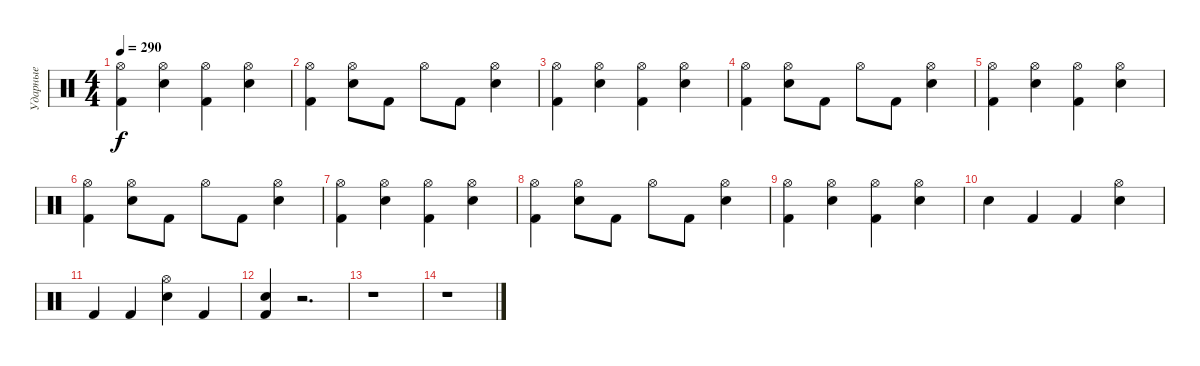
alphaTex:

\track ("Ударные" "Ударные") {instrument percussion}
\staff {score}
\articulation defaults
\ts (4 4)
\tempo 290
\clef neutral
\ks c
("Kick (hit) 2" "Hi-Hat (open)").4{dy f} ("Snare (hit) 2" "Hi-Hat (open)").4 ("Kick (hit) 2" "Hi-Hat (open)").4 ("Snare (hit) 2" "Hi-Hat (open)").4 |
("Kick (hit) 2" "Hi-Hat (open)").4 ("Snare (hit) 2" "Hi-Hat (open)").8 "Kick (hit) 2".8 "Hi-Hat (open)".8 "Kick (hit) 2".8 ("Snare (hit) 2" "Hi-Hat (open)").4 |
("Kick (hit) 2" "Hi-Hat (open)").4 ("Snare (hit) 2" "Hi-Hat (open)").4 ("Kick (hit) 2" "Hi-Hat (open)").4 ("Snare (hit) 2" "Hi-Hat (open)").4 |
("Kick (hit) 2" "Hi-Hat (open)").4 ("Snare (hit) 2" "Hi-Hat (open)").8 "Kick (hit) 2".8 "Hi-Hat (open)".8 "Kick (hit) 2".8 ("Snare (hit) 2" "Hi-Hat (open)").4 |
("Kick (hit) 2" "Hi-Hat (open)").4 ("Snare (hit) 2" "Hi-Hat (open)").4 ("Kick (hit) 2" "Hi-Hat (open)").4 ("Snare (hit) 2" "Hi-Hat (open)").4 |
("Kick (hit) 2" "Hi-Hat (open)").4 ("Snare (hit) 2" "Hi-Hat (open)").8 "Kick (hit) 2".8 "Hi-Hat (open)".8 "Kick (hit) 2".8 ("Snare (hit) 2" "Hi-Hat (open)").4 |
("Kick (hit) 2" "Hi-Hat (open)").4 ("Snare (hit) 2" "Hi-Hat (open)").4 ("Kick (hit) 2" "Hi-Hat (open)").4 ("Snare (hit) 2" "Hi-Hat (open)").4 |
("Kick (hit) 2" "Hi-Hat (open)").4 ("Snare (hit) 2" "Hi-Hat (open)").8 "Kick (hit) 2".8 "Hi-Hat (open)".8 "Kick (hit) 2".8 ("Snare (hit) 2" "Hi-Hat (open)").4 |
("Kick (hit) 2" "Hi-Hat (open)").4 ("Snare (hit) 2" "Hi-Hat (open)").4 ("Kick (hit) 2" "Hi-Hat (open)").4 ("Snare (hit) 2" "Hi-Hat (open)").4 |
"Snare (hit) 2".4 "Kick (hit) 2".4 "Kick (hit) 2".4 ("Snare (hit) 2" "Hi-Hat (open)").4 |
"Kick (hit) 2".4 "Kick (hit) 2".4 ("Snare (hit) 2" "Hi-Hat (open)").4 "Kick (hit) 2".4 |
("Snare (hit) 2" "Kick (hit) 2").4 r.2{d} |
r.1 |
r.1
